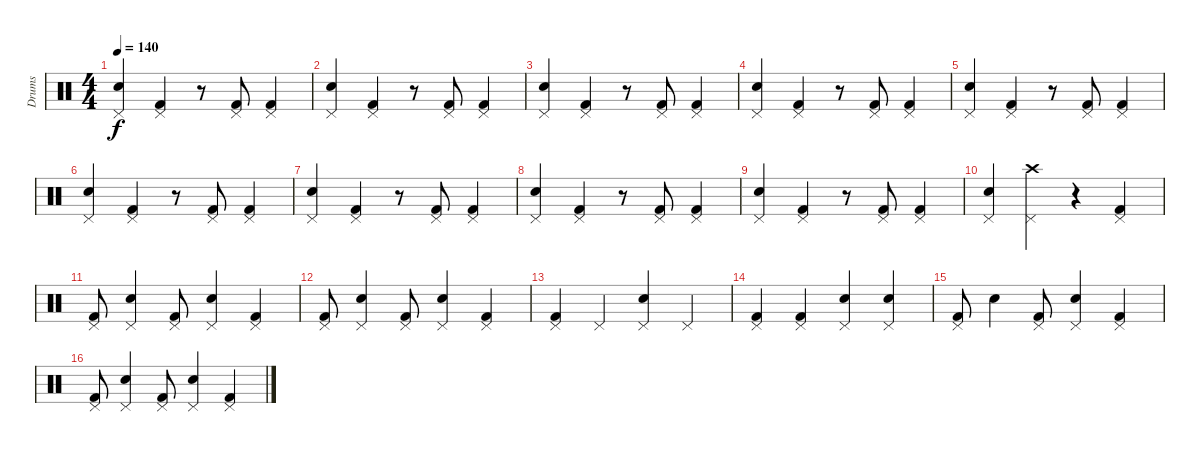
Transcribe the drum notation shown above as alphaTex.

\track ("Drums" "Drums") {instrument percussion}
\staff {score}
\articulation defaults
\ts (4 4)
\tempo 140
\clef neutral
\ks c
("Pedal Hi-Hat (hit)" "Electric Snare (hit)").4{dy f} ("Pedal Hi-Hat (hit)" "Kick (hit) 2").4 r.8 ("Pedal Hi-Hat (hit)" "Kick (hit) 2").8 ("Pedal Hi-Hat (hit)" "Kick (hit) 2").4 |
("Pedal Hi-Hat (hit)" "Electric Snare (hit)").4 ("Pedal Hi-Hat (hit)" "Kick (hit) 2").4 r.8 ("Pedal Hi-Hat (hit)" "Kick (hit) 2").8 ("Pedal Hi-Hat (hit)" "Kick (hit) 2").4 |
("Pedal Hi-Hat (hit)" "Electric Snare (hit)").4 ("Pedal Hi-Hat (hit)" "Kick (hit) 2").4 r.8 ("Pedal Hi-Hat (hit)" "Kick (hit) 2").8 ("Pedal Hi-Hat (hit)" "Kick (hit) 2").4 |
("Pedal Hi-Hat (hit)" "Electric Snare (hit)").4 ("Pedal Hi-Hat (hit)" "Kick (hit) 2").4 r.8 ("Pedal Hi-Hat (hit)" "Kick (hit) 2").8 ("Pedal Hi-Hat (hit)" "Kick (hit) 2").4 |
("Pedal Hi-Hat (hit)" "Electric Snare (hit)").4 ("Pedal Hi-Hat (hit)" "Kick (hit) 2").4 r.8 ("Pedal Hi-Hat (hit)" "Kick (hit) 2").8 ("Pedal Hi-Hat (hit)" "Kick (hit) 2").4 |
("Pedal Hi-Hat (hit)" "Electric Snare (hit)").4 ("Pedal Hi-Hat (hit)" "Kick (hit) 2").4 r.8 ("Pedal Hi-Hat (hit)" "Kick (hit) 2").8 ("Pedal Hi-Hat (hit)" "Kick (hit) 2").4 |
("Pedal Hi-Hat (hit)" "Electric Snare (hit)").4 ("Pedal Hi-Hat (hit)" "Kick (hit) 2").4 r.8 ("Pedal Hi-Hat (hit)" "Kick (hit) 2").8 ("Pedal Hi-Hat (hit)" "Kick (hit) 2").4 |
("Pedal Hi-Hat (hit)" "Electric Snare (hit)").4 ("Pedal Hi-Hat (hit)" "Kick (hit) 2").4 r.8 ("Pedal Hi-Hat (hit)" "Kick (hit) 2").8 ("Pedal Hi-Hat (hit)" "Kick (hit) 2").4 |
("Pedal Hi-Hat (hit)" "Electric Snare (hit)").4 ("Pedal Hi-Hat (hit)" "Kick (hit) 2").4 r.8 ("Pedal Hi-Hat (hit)" "Kick (hit) 2").8 ("Pedal Hi-Hat (hit)" "Kick (hit) 2").4 |
("Pedal Hi-Hat (hit)" "Electric Snare (hit)").4 ("Pedal Hi-Hat (hit)" "Crash high (hit)").4 r.4 ("Pedal Hi-Hat (hit)" "Kick (hit) 2").4 |
("Pedal Hi-Hat (hit)" "Kick (hit) 2").8 ("Pedal Hi-Hat (hit)" "Electric Snare (hit)").4 ("Pedal Hi-Hat (hit)" "Kick (hit) 2").8 ("Pedal Hi-Hat (hit)" "Electric Snare (hit)").4 ("Pedal Hi-Hat (hit)" "Kick (hit) 2").4 |
("Pedal Hi-Hat (hit)" "Kick (hit) 2").8 ("Pedal Hi-Hat (hit)" "Electric Snare (hit)").4 ("Pedal Hi-Hat (hit)" "Kick (hit) 2").8 ("Pedal Hi-Hat (hit)" "Electric Snare (hit)").4 ("Pedal Hi-Hat (hit)" "Kick (hit) 2").4 |
("Pedal Hi-Hat (hit)" "Kick (hit) 2").4 "Pedal Hi-Hat (hit)".4 ("Pedal Hi-Hat (hit)" "Electric Snare (hit)").4 "Pedal Hi-Hat (hit)".4 |
("Pedal Hi-Hat (hit)" "Kick (hit) 2").4 ("Pedal Hi-Hat (hit)" "Kick (hit) 2").4 ("Pedal Hi-Hat (hit)" "Electric Snare (hit)").4 ("Pedal Hi-Hat (hit)" "Electric Snare (hit)").4 |
("Pedal Hi-Hat (hit)" "Kick (hit) 2").8 "Electric Snare (hit)".4 ("Pedal Hi-Hat (hit)" "Kick (hit) 2").8 ("Pedal Hi-Hat (hit)" "Electric Snare (hit)").4 ("Pedal Hi-Hat (hit)" "Kick (hit) 2").4 |
("Pedal Hi-Hat (hit)" "Kick (hit) 2").8 ("Pedal Hi-Hat (hit)" "Electric Snare (hit)").4 ("Pedal Hi-Hat (hit)" "Kick (hit) 2").8 ("Pedal Hi-Hat (hit)" "Electric Snare (hit)").4 ("Pedal Hi-Hat (hit)" "Kick (hit) 2").4
